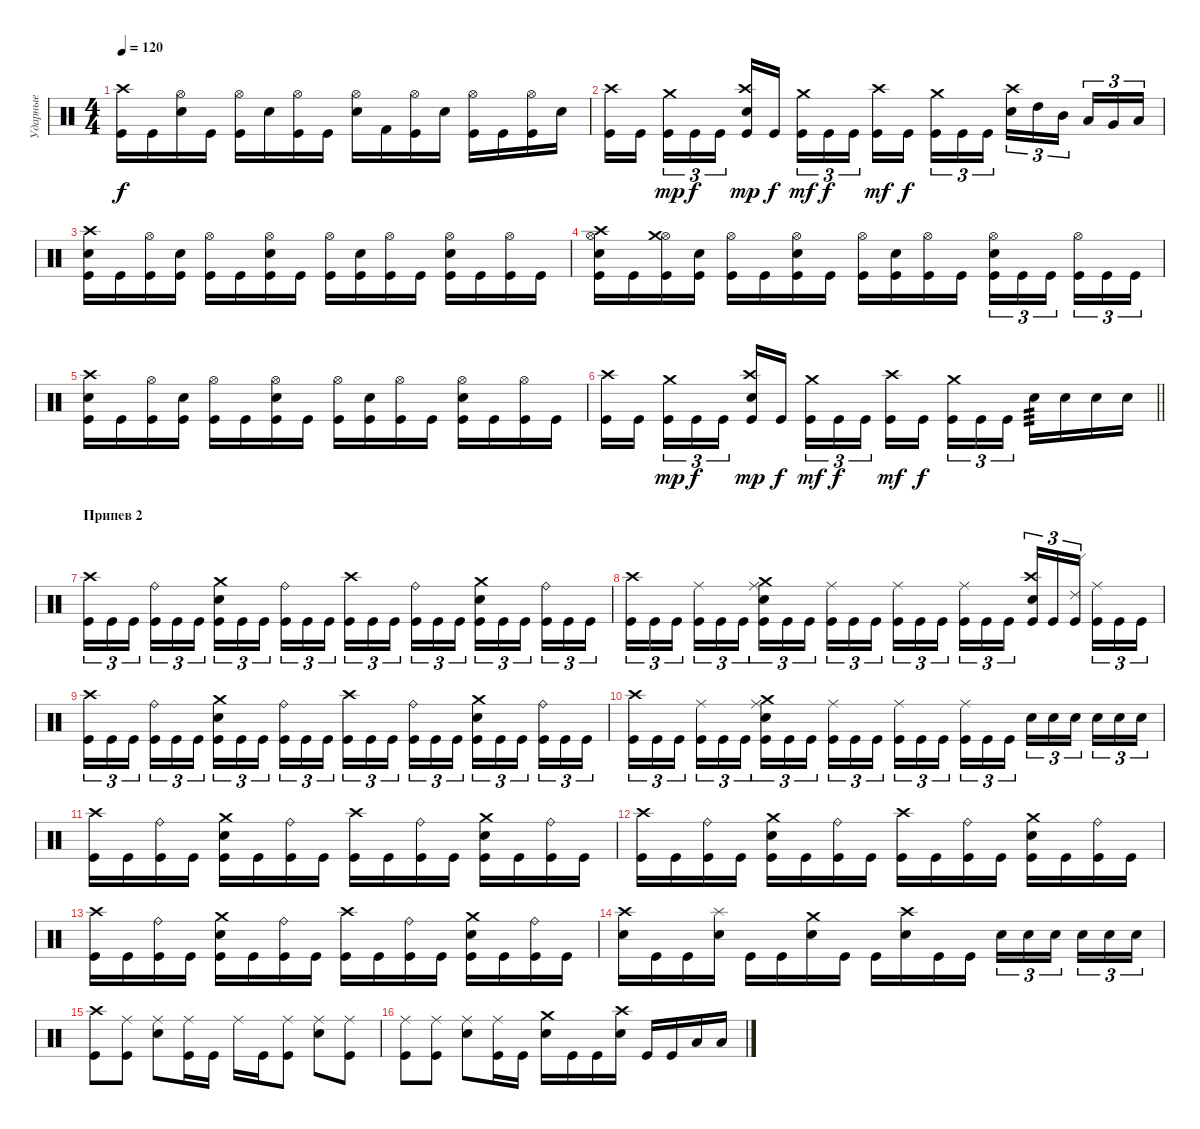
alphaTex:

\track ("Ударные" "Ударные") {instrument percussion}
\staff {score}
\articulation defaults
\ts (4 4)
\tempo 120
\clef neutral
\ks c
("Kick (hit)" "Crash high (hit)").16{dy f} "Kick (hit)".16 ("Snare (hit) 2" "Hi-Hat (open)").16 "Kick (hit)".16 ("Kick (hit)" "Hi-Hat (open)").16 "Snare (hit) 2".16 ("Kick (hit)" "Hi-Hat (open)").16 "Kick (hit)".16 ("Snare (hit) 2" "Hi-Hat (open)").16 "Kick (hit) 2".16 ("Kick (hit)" "Hi-Hat (open)").16 "Snare (hit) 2".16 ("Kick (hit)" "Hi-Hat (open)").16 "Kick (hit)".16 ("Kick (hit)" "Hi-Hat (open)").16 "Snare (hit) 2".16 |
("Kick (hit)" "Crash high (hit)").16 "Kick (hit)".16 ("Kick (hit)" "Crash medium (hit)").16{tu (3 2) dy mp} "Kick (hit)".16{tu (3 2) dy f} "Kick (hit)".16{tu (3 2)} ("Kick (hit)" "Snare (hit) 2" "Crash high (hit)").16{dy mp} "Kick (hit)".16{dy f} ("Kick (hit)" "Crash medium (hit)").16{tu (3 2) dy mf} "Kick (hit)".16{tu (3 2) dy f} "Kick (hit)".16{tu (3 2)} ("Kick (hit)" "Crash high (hit)").16{dy mf} "Kick (hit)".16{dy f} ("Kick (hit)" "Crash medium (hit)").16{tu (3 2)} "Kick (hit)".16{tu (3 2)} "Kick (hit)".16{tu (3 2)} ("Snare (hit) 2" "Crash high (hit)").16{tu (3 2)} "High Tom (hit)".16{tu (3 2)} "Mid Tom (hit)".16{tu (3 2)} "Low Tom (hit)".16{tu (3 2)} "Very Low Tom (hit)".16{tu (3 2)} "Low Floor Tom (hit)".16{tu (3 2)} |
("Crash high (hit)" "Snare (hit) 2" "Kick (hit)").16 "Kick (hit)".16 ("Hi-Hat (open)" "Kick (hit)").16 ("Snare (hit) 2" "Kick (hit)").16 ("Hi-Hat (open)" "Kick (hit)").16 "Kick (hit)".16 ("Hi-Hat (open)" "Snare (hit) 2" "Kick (hit)").16 "Kick (hit)".16 ("Hi-Hat (open)" "Kick (hit)").16 ("Snare (hit) 2" "Kick (hit)").16 ("Hi-Hat (open)" "Kick (hit)").16 "Kick (hit)".16 ("Hi-Hat (open)" "Snare (hit) 2" "Kick (hit)").16 "Kick (hit)".16 ("Hi-Hat (open)" "Kick (hit)").16 "Kick (hit)".16 |
("Hi-Hat (open)" "Snare (hit) 2" "Crash high (hit)" "Kick (hit)").16 "Kick (hit)".16 ("Hi-Hat (open)" "Crash medium (hit)" "Kick (hit)").16 ("Snare (hit) 2" "Kick (hit)").16 ("Hi-Hat (open)" "Kick (hit)").16 "Kick (hit)".16 ("Hi-Hat (open)" "Snare (hit) 2" "Kick (hit)").16 "Kick (hit)".16 ("Hi-Hat (open)" "Kick (hit)").16 ("Snare (hit) 2" "Kick (hit)").16 ("Hi-Hat (open)" "Kick (hit)").16 "Kick (hit)".16 ("Kick (hit)" "Snare (hit) 2" "Hi-Hat (open)").16{tu (3 2)} "Kick (hit)".16{tu (3 2)} "Kick (hit)".16{tu (3 2)} ("Kick (hit)" "Hi-Hat (open)").16{tu (3 2)} "Kick (hit)".16{tu (3 2)} "Kick (hit)".16{tu (3 2)} |
("Crash high (hit)" "Snare (hit) 2" "Kick (hit)").16 "Kick (hit)".16 ("Hi-Hat (open)" "Kick (hit)").16 ("Snare (hit) 2" "Kick (hit)").16 ("Hi-Hat (open)" "Kick (hit)").16 "Kick (hit)".16 ("Hi-Hat (open)" "Snare (hit) 2" "Kick (hit)").16 "Kick (hit)".16 ("Hi-Hat (open)" "Kick (hit)").16 ("Snare (hit) 2" "Kick (hit)").16 ("Hi-Hat (open)" "Kick (hit)").16 "Kick (hit)".16 ("Hi-Hat (open)" "Snare (hit) 2" "Kick (hit)").16 "Kick (hit)".16 ("Hi-Hat (open)" "Kick (hit)").16 "Kick (hit)".16 |
\barLineRight lightlight
("Kick (hit)" "Crash high (hit)").16 "Kick (hit)".16 ("Kick (hit)" "Crash medium (hit)").16{tu (3 2) dy mp} "Kick (hit)".16{tu (3 2) dy f} "Kick (hit)".16{tu (3 2)} ("Kick (hit)" "Snare (hit) 2" "Crash high (hit)").16{dy mp} "Kick (hit)".16{dy f} ("Kick (hit)" "Crash medium (hit)").16{tu (3 2) dy mf} "Kick (hit)".16{tu (3 2) dy f} "Kick (hit)".16{tu (3 2)} ("Kick (hit)" "Crash high (hit)").16{dy mf} "Kick (hit)".16{dy f} ("Kick (hit)" "Crash medium (hit)").16{tu (3 2)} "Kick (hit)".16{tu (3 2)} "Kick (hit)".16{tu (3 2)} "Snare (hit) 2".16{tp 3} "Snare (hit) 2".16 "Snare (hit) 2".16 "Snare (hit) 2".16 |
\section ("" "Припев 2")
("Kick (hit)" "Crash high (hit)").16{tu (3 2)} "Kick (hit)".16{tu (3 2)} "Kick (hit)".16{tu (3 2)} ("Kick (hit)" "Ride (bell)").16{tu (3 2)} "Kick (hit)".16{tu (3 2)} "Kick (hit)".16{tu (3 2)} ("Kick (hit)" "Snare (hit) 2" "Crash medium (hit)").16{tu (3 2)} "Kick (hit)".16{tu (3 2)} "Kick (hit)".16{tu (3 2)} ("Kick (hit)" "Ride (bell)").16{tu (3 2)} "Kick (hit)".16{tu (3 2)} "Kick (hit)".16{tu (3 2)} ("Kick (hit)" "Crash high (hit)").16{tu (3 2)} "Kick (hit)".16{tu (3 2)} "Kick (hit)".16{tu (3 2)} ("Kick (hit)" "Ride (bell)").16{tu (3 2)} "Kick (hit)".16{tu (3 2)} "Kick (hit)".16{tu (3 2)} ("Kick (hit)" "Snare (hit) 2" "Crash medium (hit)").16{tu (3 2)} "Kick (hit)".16{tu (3 2)} "Kick (hit)".16{tu (3 2)} ("Kick (hit)" "Ride (bell)").16{tu (3 2)} "Kick (hit)".16{tu (3 2)} "Kick (hit)".16{tu (3 2)} |
("Kick (hit)" "Crash high (hit)").16{tu (3 2)} "Kick (hit)".16{tu (3 2)} "Kick (hit)".16{tu (3 2)} ("Kick (hit)" "Ride (middle)").16{tu (3 2)} "Kick (hit)".16{tu (3 2)} "Kick (hit)".16{tu (3 2)} ("Kick (hit)" "Snare (hit) 2" "Ride (middle)" "Crash medium (hit)").16{tu (3 2)} "Kick (hit)".16{tu (3 2)} "Kick (hit)".16{tu (3 2)} ("Kick (hit)" "Ride (middle)").16{tu (3 2)} "Kick (hit)".16{tu (3 2)} "Kick (hit)".16{tu (3 2)} ("Kick (hit)" "Ride (middle)").16{tu (3 2)} "Kick (hit)".16{tu (3 2)} "Kick (hit)".16{tu (3 2)} ("Kick (hit)" "Ride (middle)").16{tu (3 2)} "Kick (hit)".16{tu (3 2)} "Kick (hit)".16{tu (3 2)} ("Kick (hit)" "Snare (hit) 2" "Crash high (hit)").16{tu (3 2)} "Kick (hit)".16{tu (3 2)} ("Kick (hit)" "Ride (edge) 2").16{tu (3 2)} ("Kick (hit)" "Ride (middle)").16{tu (3 2)} "Kick (hit)".16{tu (3 2)} "Kick (hit)".16{tu (3 2)} |
("Kick (hit)" "Crash high (hit)").16{tu (3 2)} "Kick (hit)".16{tu (3 2)} "Kick (hit)".16{tu (3 2)} ("Kick (hit)" "Ride (bell)").16{tu (3 2)} "Kick (hit)".16{tu (3 2)} "Kick (hit)".16{tu (3 2)} ("Kick (hit)" "Snare (hit) 2" "Crash medium (hit)").16{tu (3 2)} "Kick (hit)".16{tu (3 2)} "Kick (hit)".16{tu (3 2)} ("Kick (hit)" "Ride (bell)").16{tu (3 2)} "Kick (hit)".16{tu (3 2)} "Kick (hit)".16{tu (3 2)} ("Kick (hit)" "Crash high (hit)").16{tu (3 2)} "Kick (hit)".16{tu (3 2)} "Kick (hit)".16{tu (3 2)} ("Kick (hit)" "Ride (bell)").16{tu (3 2)} "Kick (hit)".16{tu (3 2)} "Kick (hit)".16{tu (3 2)} ("Kick (hit)" "Snare (hit) 2" "Crash medium (hit)").16{tu (3 2)} "Kick (hit)".16{tu (3 2)} "Kick (hit)".16{tu (3 2)} ("Kick (hit)" "Ride (bell)").16{tu (3 2)} "Kick (hit)".16{tu (3 2)} "Kick (hit)".16{tu (3 2)} |
("Kick (hit)" "Crash high (hit)").16{tu (3 2)} "Kick (hit)".16{tu (3 2)} "Kick (hit)".16{tu (3 2)} ("Kick (hit)" "Ride (middle)").16{tu (3 2)} "Kick (hit)".16{tu (3 2)} "Kick (hit)".16{tu (3 2)} ("Kick (hit)" "Snare (hit) 2" "Ride (middle)" "Crash medium (hit)").16{tu (3 2)} "Kick (hit)".16{tu (3 2)} "Kick (hit)".16{tu (3 2)} ("Kick (hit)" "Ride (middle)").16{tu (3 2)} "Kick (hit)".16{tu (3 2)} "Kick (hit)".16{tu (3 2)} ("Kick (hit)" "Ride (middle)").16{tu (3 2)} "Kick (hit)".16{tu (3 2)} "Kick (hit)".16{tu (3 2)} ("Kick (hit)" "Ride (middle)").16{tu (3 2)} "Kick (hit)".16{tu (3 2)} "Kick (hit)".16{tu (3 2)} "Snare (hit) 2".16{tu (3 2)} "Snare (hit) 2".16{tu (3 2)} "Snare (hit) 2".16{tu (3 2)} "Snare (hit) 2".16{tu (3 2)} "Snare (hit) 2".16{tu (3 2)} "Snare (hit) 2".16{tu (3 2)} |
("Kick (hit)" "Crash high (hit)").16 "Kick (hit)".16 ("Kick (hit)" "Ride (bell)").16 "Kick (hit)".16 ("Kick (hit)" "Snare (hit) 2" "Crash medium (hit)").16 "Kick (hit)".16 ("Kick (hit)" "Ride (bell)").16 "Kick (hit)".16 ("Kick (hit)" "Crash high (hit)").16 "Kick (hit)".16 ("Kick (hit)" "Ride (bell)").16 "Kick (hit)".16 ("Kick (hit)" "Snare (hit) 2" "Crash medium (hit)").16 "Kick (hit)".16 ("Kick (hit)" "Ride (bell)").16 "Kick (hit)".16 |
("Kick (hit)" "Crash high (hit)").16 "Kick (hit)".16 ("Kick (hit)" "Ride (bell)").16 "Kick (hit)".16 ("Kick (hit)" "Snare (hit) 2" "Crash medium (hit)").16 "Kick (hit)".16 ("Kick (hit)" "Ride (bell)").16 "Kick (hit)".16 ("Kick (hit)" "Crash high (hit)").16 "Kick (hit)".16 ("Kick (hit)" "Ride (bell)").16 "Kick (hit)".16 ("Kick (hit)" "Snare (hit) 2" "Crash medium (hit)").16 "Kick (hit)".16 ("Kick (hit)" "Ride (bell)").16 "Kick (hit)".16 |
("Kick (hit)" "Crash high (hit)").16 "Kick (hit)".16 ("Kick (hit)" "Ride (bell)").16 "Kick (hit)".16 ("Kick (hit)" "Snare (hit) 2" "Crash medium (hit)").16 "Kick (hit)".16 ("Kick (hit)" "Ride (bell)").16 "Kick (hit)".16 ("Kick (hit)" "Crash high (hit)").16 "Kick (hit)".16 ("Kick (hit)" "Ride (bell)").16 "Kick (hit)".16 ("Kick (hit)" "Snare (hit) 2" "Crash medium (hit)").16 "Kick (hit)".16 ("Kick (hit)" "Ride (bell)").16 "Kick (hit)".16 |
("Snare (hit) 2" "Crash high (hit)").16 "Kick (hit)".16 "Kick (hit)".16 ("Snare (hit) 2" "Splash (hit)").16 "Kick (hit)".16 "Kick (hit)".16 ("Snare (hit) 2" "Crash medium (hit)").16 "Kick (hit)".16 "Kick (hit)".16 ("Snare (hit) 2" "Crash high (hit)").16 "Kick (hit)".16 "Kick (hit)".16 "Snare (hit) 2".16{tu (3 2)} "Snare (hit) 2".16{tu (3 2)} "Snare (hit) 2".16{tu (3 2)} "Snare (hit) 2".16{tu (3 2)} "Snare (hit) 2".16{tu (3 2)} "Snare (hit) 2".16{tu (3 2)} |
("Kick (hit)" "Crash high (hit)").8 ("Kick (hit)" "Ride (middle)").8 ("Snare (hit) 2" "Ride (middle)").8 ("Kick (hit)" "Ride (middle)").16 "Kick (hit)".16 "Ride (middle)".16 "Kick (hit)".16 ("Kick (hit)" "Ride (middle)").8 ("Snare (hit) 2" "Ride (middle)").8 ("Kick (hit)" "Ride (middle)").8 |
("Kick (hit)" "Ride (middle)").8 ("Kick (hit)" "Ride (middle)").8 ("Snare (hit) 2" "Ride (middle)").8 ("Kick (hit)" "Ride (middle)").16 "Kick (hit)".16 ("Crash medium (hit)" "Snare (hit) 2").16 "Kick (hit)".16 "Kick (hit)".16 ("Crash high (hit)" "Snare (hit) 2").16 "Kick (hit)".16 "Kick (hit)".16 "Low Tom (hit)".16 "Low Tom (hit)".16
